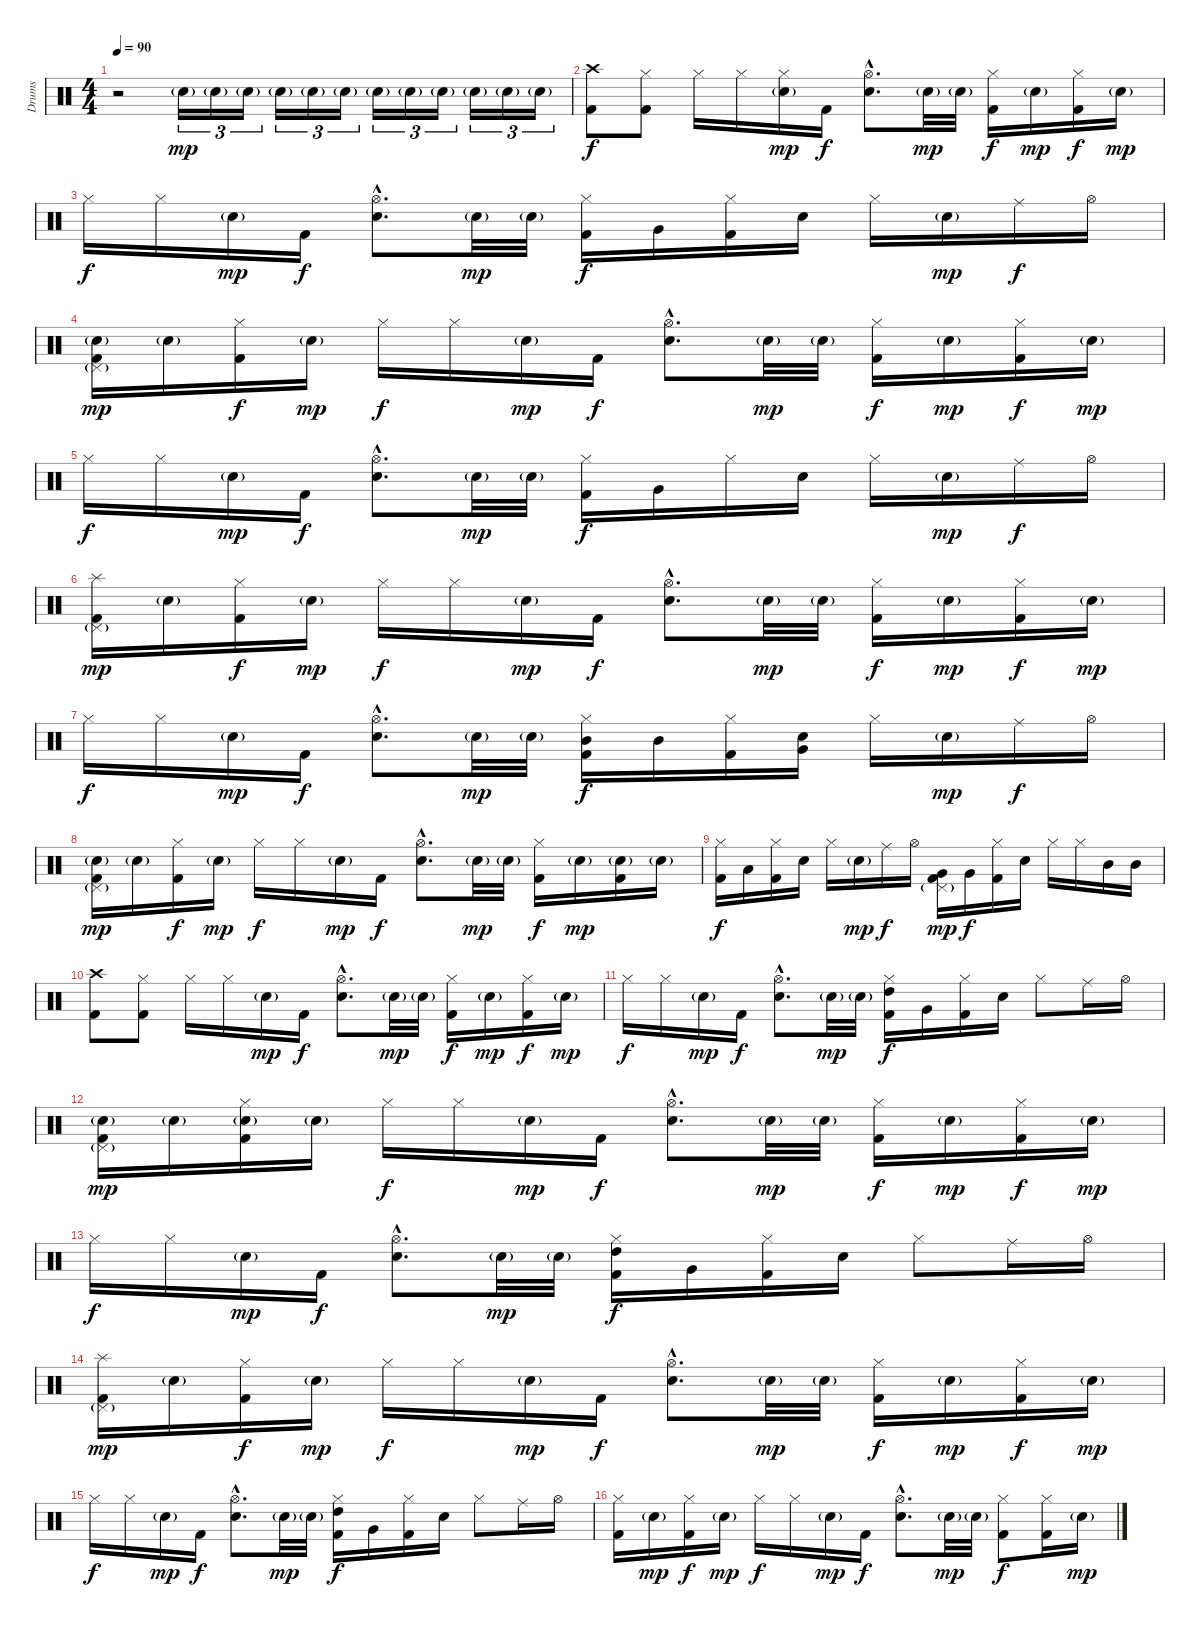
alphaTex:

\track ("Drums" "Drums") {instrument percussion}
\staff {score}
\articulation defaults
\ts (4 4)
\tempo 90
\clef neutral
\ks c
r.2{dy f volume 0} "Electric Snare (hit)"{g}.16{tu (3 2) dy mp volume 10} "Electric Snare (hit)"{g}.16{tu (3 2)} "Electric Snare (hit)"{g}.16{tu (3 2)} "Electric Snare (hit)"{g}.16{tu (3 2)} "Electric Snare (hit)"{g}.16{tu (3 2)} "Electric Snare (hit)"{g}.16{tu (3 2)} "Electric Snare (hit)"{g}.16{tu (3 2)} "Electric Snare (hit)"{g}.16{tu (3 2)} "Electric Snare (hit)"{g}.16{tu (3 2)} "Electric Snare (hit)"{g}.16{tu (3 2)} "Electric Snare (hit)"{g}.16{tu (3 2)} "Electric Snare (hit)"{g}.16{tu (3 2)} |
("Crash high (hit)" "Kick (hit) 2").8{dy f} ("Hi-Hat (closed)" "Kick (hit) 2").8 "Hi-Hat (closed)".16 "Hi-Hat (closed)".16 ("Hi-Hat (closed)" "Electric Snare (hit)"{g}).16{dy mp} "Kick (hit) 2".16{dy f} ("Electric Snare (hit)"{hac} "Hi-Hat (open)"{hac}).8{d} "Electric Snare (hit)"{g}.32{dy mp} "Electric Snare (hit)"{g}.32 ("Hi-Hat (closed)" "Kick (hit) 2").16{dy f} "Electric Snare (hit)"{g}.16{dy mp} ("Hi-Hat (closed)" "Kick (hit) 2").16{dy f} "Electric Snare (hit)"{g}.16{dy mp} |
"Hi-Hat (closed)".16{dy f} "Hi-Hat (closed)".16 "Electric Snare (hit)"{g}.16{dy mp} "Kick (hit) 2".16{dy f} ("Hi-Hat (open)"{hac} "Electric Snare (hit)"{hac}).8{d} "Electric Snare (hit)"{g}.32{dy mp} "Electric Snare (hit)"{g}.32 ("Hi-Hat (closed)" "Kick (hit) 2").16{dy f} "Very Low Tom (hit)".16 ("Hi-Hat (closed)" "Kick (hit) 2").16 "Electric Snare (hit)".16 "Hi-Hat (closed)".16 "Electric Snare (hit)"{g}.16{dy mp} "Ride (middle)".16{dy f} "Hi-Hat (open)".16 |
("Pedal Hi-Hat (hit)"{g} "Electric Snare (hit)"{g} "Kick (hit) 2").16{dy mp} "Electric Snare (hit)"{g}.16 ("Hi-Hat (closed)" "Kick (hit) 2").16{dy f} "Electric Snare (hit)"{g}.16{dy mp} "Hi-Hat (closed)".16{dy f} "Hi-Hat (closed)".16 "Electric Snare (hit)"{g}.16{dy mp} "Kick (hit) 2".16{dy f} ("Electric Snare (hit)"{hac} "Hi-Hat (open)"{hac}).8{d} "Electric Snare (hit)"{g}.32{dy mp} "Electric Snare (hit)"{g}.32 ("Hi-Hat (closed)" "Kick (hit) 2").16{dy f} "Electric Snare (hit)"{g}.16{dy mp} ("Hi-Hat (closed)" "Kick (hit) 2").16{dy f} "Electric Snare (hit)"{g}.16{dy mp} |
"Hi-Hat (closed)".16{dy f} "Hi-Hat (closed)".16 "Electric Snare (hit)"{g}.16{dy mp} "Kick (hit) 2".16{dy f} ("Hi-Hat (open)"{hac} "Electric Snare (hit)"{hac}).8{d} "Electric Snare (hit)"{g}.32{dy mp} "Electric Snare (hit)"{g}.32 ("Hi-Hat (closed)" "Kick (hit) 2").16{dy f} "Very Low Tom (hit)".16 "Hi-Hat (closed)".16 "Electric Snare (hit)".16 "Hi-Hat (closed)".16 "Electric Snare (hit)"{g}.16{dy mp} "Ride (middle)".16{dy f} "Hi-Hat (open)".16 |
("Splash (hit)" "Pedal Hi-Hat (hit)"{g} "Kick (hit) 2").16{dy mp} "Electric Snare (hit)"{g}.16 ("Hi-Hat (closed)" "Kick (hit) 2").16{dy f} "Electric Snare (hit)"{g}.16{dy mp} "Hi-Hat (closed)".16{dy f} "Hi-Hat (closed)".16 "Electric Snare (hit)"{g}.16{dy mp} "Kick (hit) 2".16{dy f} ("Hi-Hat (open)"{hac} "Electric Snare (hit)"{hac}).8{d} "Electric Snare (hit)"{g}.32{dy mp} "Electric Snare (hit)"{g}.32 ("Hi-Hat (closed)" "Kick (hit) 2").16{dy f} "Electric Snare (hit)"{g}.16{dy mp} ("Hi-Hat (closed)" "Kick (hit) 2").16{dy f} "Electric Snare (hit)"{g}.16{dy mp} |
"Hi-Hat (closed)".16{dy f} "Hi-Hat (closed)".16 "Electric Snare (hit)"{g}.16{dy mp} "Kick (hit) 2".16{dy f} ("Hi-Hat (open)"{hac} "Electric Snare (hit)"{hac}).8{d} "Electric Snare (hit)"{g}.32{dy mp} "Electric Snare (hit)"{g}.32 ("Hi-Hat (closed)" "Mid Tom (hit)" "Kick (hit) 2").16{dy f} "Mid Tom (hit)".16 ("Hi-Hat (closed)" "Kick (hit) 2").16 ("Electric Snare (hit)" "Very Low Tom (hit)").16 "Hi-Hat (closed)".16 "Electric Snare (hit)"{g}.16{dy mp} "Ride (middle)".16{dy f} "Hi-Hat (open)".16 |
("Electric Snare (hit)"{g} "Pedal Hi-Hat (hit)"{g} "Kick (hit) 2").16{dy mp} "Electric Snare (hit)"{g}.16 ("Hi-Hat (closed)" "Kick (hit) 2").16{dy f} "Electric Snare (hit)"{g}.16{dy mp} "Hi-Hat (closed)".16{dy f} "Hi-Hat (closed)".16 "Electric Snare (hit)"{g}.16{dy mp} "Kick (hit) 2".16{dy f} ("Hi-Hat (open)"{hac} "Electric Snare (hit)"{hac}).8{d} "Electric Snare (hit)"{g}.32{dy mp} "Electric Snare (hit)"{g}.32 ("Hi-Hat (closed)" "Kick (hit) 2").16{dy f} "Electric Snare (hit)"{g}.16{dy mp} ("Electric Snare (hit)"{g} "Kick (hit) 2").16 "Electric Snare (hit)"{g}.16 |
("Hi-Hat (closed)" "Kick (hit) 2").16{dy f} "Low Tom (hit)".16 ("Hi-Hat (closed)" "Kick (hit) 2").16 "Electric Snare (hit)".16 "Hi-Hat (closed)".16 "Electric Snare (hit)"{g}.16{dy mp} "Ride (middle)".16{dy f} "Hi-Hat (open)".16 ("Pedal Hi-Hat (hit)"{g} "Very Low Tom (hit)" "Kick (hit) 2").16{dy mp} "Very Low Tom (hit)".16{dy f} ("Hi-Hat (closed)" "Kick (hit) 2").16 "Electric Snare (hit)".16 "Hi-Hat (closed)".16 "Hi-Hat (closed)".16 "Mid Tom (hit)".16 "Mid Tom (hit)".16 |
("Crash high (hit)" "Kick (hit) 2").8 ("Hi-Hat (closed)" "Kick (hit) 2").8 "Hi-Hat (closed)".16 "Hi-Hat (closed)".16 "Electric Snare (hit)"{g}.16{dy mp} "Kick (hit) 2".16{dy f} ("Electric Snare (hit)"{hac} "Hi-Hat (open)"{hac}).8{d} "Electric Snare (hit)"{g}.32{dy mp} "Electric Snare (hit)"{g}.32 ("Hi-Hat (closed)" "Kick (hit) 2").16{dy f} "Electric Snare (hit)"{g}.16{dy mp} ("Hi-Hat (closed)" "Kick (hit) 2").16{dy f} "Electric Snare (hit)"{g}.16{dy mp} |
"Hi-Hat (closed)".16{dy f} "Hi-Hat (closed)".16 "Electric Snare (hit)"{g}.16{dy mp} "Kick (hit) 2".16{dy f} ("Hi-Hat (open)"{hac} "Electric Snare (hit)"{hac}).8{d} "Electric Snare (hit)"{g}.32{dy mp} "Electric Snare (hit)"{g}.32 ("Kick (hit) 2" "Hi-Hat (closed)" "High Tom (hit)").16{dy f} "Very Low Tom (hit)".16 ("Hi-Hat (closed)" "Kick (hit) 2").16 "Electric Snare (hit)".16 "Hi-Hat (closed)".8 "Ride (middle)".16 "Hi-Hat (open)".16 |
("Electric Snare (hit)"{g} "Pedal Hi-Hat (hit)"{g} "Kick (hit) 2").16{dy mp} "Electric Snare (hit)"{g}.16 ("Electric Snare (hit)"{g} "Kick (hit) 2" "Hi-Hat (closed)").16 "Electric Snare (hit)"{g}.16 "Hi-Hat (closed)".16{dy f} "Hi-Hat (closed)".16 "Electric Snare (hit)"{g}.16{dy mp} "Kick (hit) 2".16{dy f} ("Electric Snare (hit)"{hac} "Hi-Hat (open)"{hac}).8{d} "Electric Snare (hit)"{g}.32{dy mp} "Electric Snare (hit)"{g}.32 ("Hi-Hat (closed)" "Kick (hit) 2").16{dy f} "Electric Snare (hit)"{g}.16{dy mp} ("Hi-Hat (closed)" "Kick (hit) 2").16{dy f} "Electric Snare (hit)"{g}.16{dy mp} |
"Hi-Hat (closed)".16{dy f} "Hi-Hat (closed)".16 "Electric Snare (hit)"{g}.16{dy mp} "Kick (hit) 2".16{dy f} ("Electric Snare (hit)"{hac} "Hi-Hat (open)"{hac}).8{d} "Electric Snare (hit)"{g}.32{dy mp} "Electric Snare (hit)"{g}.32 ("Kick (hit) 2" "Hi-Hat (closed)" "High Tom (hit)").16{dy f} "Very Low Tom (hit)".16 ("Hi-Hat (closed)" "Kick (hit) 2").16 "Electric Snare (hit)".16 "Hi-Hat (closed)".8 "Ride (middle)".16 "Hi-Hat (open)".16 |
("Splash (hit)" "Pedal Hi-Hat (hit)"{g} "Kick (hit) 2").16{dy mp} "Electric Snare (hit)"{g}.16 ("Kick (hit) 2" "Hi-Hat (closed)").16{dy f} "Electric Snare (hit)"{g}.16{dy mp} "Hi-Hat (closed)".16{dy f} "Hi-Hat (closed)".16 "Electric Snare (hit)"{g}.16{dy mp} "Kick (hit) 2".16{dy f} ("Electric Snare (hit)"{hac} "Hi-Hat (open)"{hac}).8{d} "Electric Snare (hit)"{g}.32{dy mp} "Electric Snare (hit)"{g}.32 ("Hi-Hat (closed)" "Kick (hit) 2").16{dy f} "Electric Snare (hit)"{g}.16{dy mp} ("Hi-Hat (closed)" "Kick (hit) 2").16{dy f} "Electric Snare (hit)"{g}.16{dy mp} |
"Hi-Hat (closed)".16{dy f} "Hi-Hat (closed)".16 "Electric Snare (hit)"{g}.16{dy mp} "Kick (hit) 2".16{dy f} ("Electric Snare (hit)"{hac} "Hi-Hat (open)"{hac}).8{d} "Electric Snare (hit)"{g}.32{dy mp} "Electric Snare (hit)"{g}.32 ("Kick (hit) 2" "Hi-Hat (closed)" "High Tom (hit)").16{dy f} "Very Low Tom (hit)".16 ("Hi-Hat (closed)" "Kick (hit) 2").16 "Electric Snare (hit)".16 "Hi-Hat (closed)".8 "Ride (middle)".16 "Hi-Hat (open)".16 |
("Hi-Hat (closed)" "Kick (hit) 2").16 "Electric Snare (hit)"{g}.16{dy mp} ("Kick (hit) 2" "Hi-Hat (closed)").16{dy f} "Electric Snare (hit)"{g}.16{dy mp} "Hi-Hat (closed)".16{dy f} "Hi-Hat (closed)".16 "Electric Snare (hit)"{g}.16{dy mp} "Kick (hit) 2".16{dy f} ("Electric Snare (hit)"{hac} "Hi-Hat (open)"{hac}).8{d} "Electric Snare (hit)"{g}.32{dy mp} "Electric Snare (hit)"{g}.32 ("Hi-Hat (closed)" "Kick (hit) 2").8{dy f} ("Hi-Hat (closed)" "Kick (hit) 2").16 "Electric Snare (hit)"{g}.16{dy mp}
